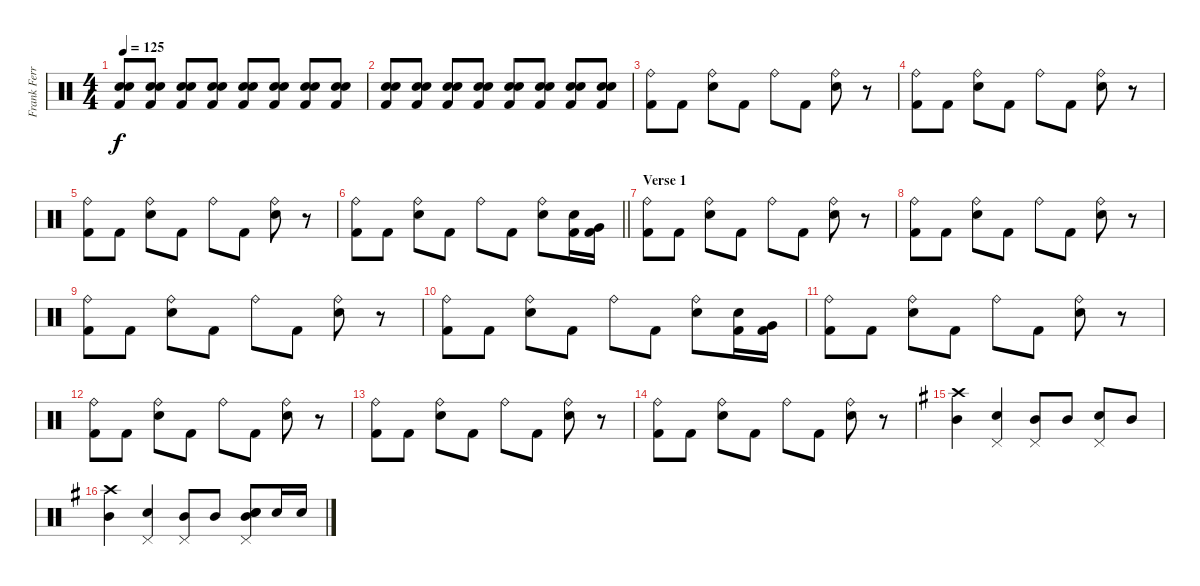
\track ("Frank Ferrer" "Frank Ferr") {instrument percussion}
\staff {score}
\articulation defaults
\ts (4 4)
\tempo 125
\clef neutral
\ks c
("Kick (hit) 2" "Electric Snare (hit)" "Snare (hit) 2").8{dy f} ("Kick (hit) 2" "Electric Snare (hit)" "Snare (hit) 2").8 ("Kick (hit) 2" "Electric Snare (hit)" "Snare (hit) 2").8 ("Kick (hit) 2" "Electric Snare (hit)" "Snare (hit) 2").8 ("Kick (hit) 2" "Electric Snare (hit)" "Snare (hit) 2").8 ("Kick (hit) 2" "Electric Snare (hit)" "Snare (hit) 2").8 ("Kick (hit) 2" "Electric Snare (hit)" "Snare (hit) 2").8 ("Kick (hit) 2" "Electric Snare (hit)" "Snare (hit) 2").8 |
("Kick (hit) 2" "Electric Snare (hit)" "Snare (hit) 2").8 ("Kick (hit) 2" "Electric Snare (hit)" "Snare (hit) 2").8 ("Kick (hit) 2" "Electric Snare (hit)" "Snare (hit) 2").8 ("Kick (hit) 2" "Electric Snare (hit)" "Snare (hit) 2").8 ("Kick (hit) 2" "Electric Snare (hit)" "Snare (hit) 2").8 ("Kick (hit) 2" "Electric Snare (hit)" "Snare (hit) 2").8 ("Kick (hit) 2" "Electric Snare (hit)" "Snare (hit) 2").8 ("Kick (hit) 2" "Electric Snare (hit)" "Snare (hit) 2").8 |
("Kick (hit) 2" "Ride (bell)").8 "Kick (hit) 2".8 ("Electric Snare (hit)" "Ride (bell)").8 "Kick (hit) 2".8 "Ride (bell)".8 "Kick (hit) 2".8 ("Electric Snare (hit)" "Ride (bell)").8 r.8 |
("Kick (hit) 2" "Ride (bell)").8 "Kick (hit) 2".8 ("Electric Snare (hit)" "Ride (bell)").8 "Kick (hit) 2".8 "Ride (bell)".8 "Kick (hit) 2".8 ("Electric Snare (hit)" "Ride (bell)").8 r.8 |
("Kick (hit) 2" "Ride (bell)").8 "Kick (hit) 2".8 ("Electric Snare (hit)" "Ride (bell)").8 "Kick (hit) 2".8 "Ride (bell)".8 "Kick (hit) 2".8 ("Electric Snare (hit)" "Ride (bell)").8 r.8 |
\barLineRight lightlight
("Kick (hit) 2" "Ride (bell)").8 "Kick (hit) 2".8 ("Electric Snare (hit)" "Ride (bell)").8 "Kick (hit) 2".8 "Ride (bell)".8 "Kick (hit) 2".8 ("Electric Snare (hit)" "Ride (bell)").8 ("Kick (hit) 2" "Electric Snare (hit)").16 ("Kick (hit) 2" "Very Low Tom (hit)").16 |
\section ("" "Verse 1 ")
("Kick (hit) 2" "Ride (bell)").8 "Kick (hit) 2".8 ("Electric Snare (hit)" "Ride (bell)").8 "Kick (hit) 2".8 "Ride (bell)".8 "Kick (hit) 2".8 ("Electric Snare (hit)" "Ride (bell)").8 r.8 |
("Kick (hit) 2" "Ride (bell)").8 "Kick (hit) 2".8 ("Electric Snare (hit)" "Ride (bell)").8 "Kick (hit) 2".8 "Ride (bell)".8 "Kick (hit) 2".8 ("Electric Snare (hit)" "Ride (bell)").8 r.8 |
("Kick (hit) 2" "Ride (bell)").8 "Kick (hit) 2".8 ("Electric Snare (hit)" "Ride (bell)").8 "Kick (hit) 2".8 "Ride (bell)".8 "Kick (hit) 2".8 ("Electric Snare (hit)" "Ride (bell)").8 r.8 |
("Kick (hit) 2" "Ride (bell)").8 "Kick (hit) 2".8 ("Electric Snare (hit)" "Ride (bell)").8 "Kick (hit) 2".8 "Ride (bell)".8 "Kick (hit) 2".8 ("Electric Snare (hit)" "Ride (bell)").8 ("Kick (hit) 2" "Electric Snare (hit)").16 ("Kick (hit) 2" "Very Low Tom (hit)").16 |
("Kick (hit) 2" "Ride (bell)").8 "Kick (hit) 2".8 ("Electric Snare (hit)" "Ride (bell)").8 "Kick (hit) 2".8 "Ride (bell)".8 "Kick (hit) 2".8 ("Electric Snare (hit)" "Ride (bell)").8 r.8 |
("Kick (hit) 2" "Ride (bell)").8 "Kick (hit) 2".8 ("Electric Snare (hit)" "Ride (bell)").8 "Kick (hit) 2".8 "Ride (bell)".8 "Kick (hit) 2".8 ("Electric Snare (hit)" "Ride (bell)").8 r.8 |
("Kick (hit) 2" "Ride (bell)").8 "Kick (hit) 2".8 ("Electric Snare (hit)" "Ride (bell)").8 "Kick (hit) 2".8 "Ride (bell)".8 "Kick (hit) 2".8 ("Electric Snare (hit)" "Ride (bell)").8 r.8 |
("Kick (hit) 2" "Ride (bell)").8 "Kick (hit) 2".8 ("Electric Snare (hit)" "Ride (bell)").8 "Kick (hit) 2".8 "Ride (bell)".8 "Kick (hit) 2".8 ("Electric Snare (hit)" "Ride (bell)").8 r.8 |
\ks g
("Crash high (hit)" "Mid Tom (hit)").4 ("Pedal Hi-Hat (hit)" "Snare (hit) 2").4 ("Pedal Hi-Hat (hit)" "Mid Tom (hit)").8 "Mid Tom (hit)".8 ("Pedal Hi-Hat (hit)" "Snare (hit) 2").8 "Mid Tom (hit)".8 |
("Crash high (hit)" "Mid Tom (hit)").4 ("Pedal Hi-Hat (hit)" "Snare (hit) 2").4 ("Pedal Hi-Hat (hit)" "Mid Tom (hit)").8 "Mid Tom (hit)".8 ("Pedal Hi-Hat (hit)" "Snare (hit) 2" "Electric Snare (hit)" "Mid Tom (hit)").8 "Electric Snare (hit)".16 "Electric Snare (hit)".16
